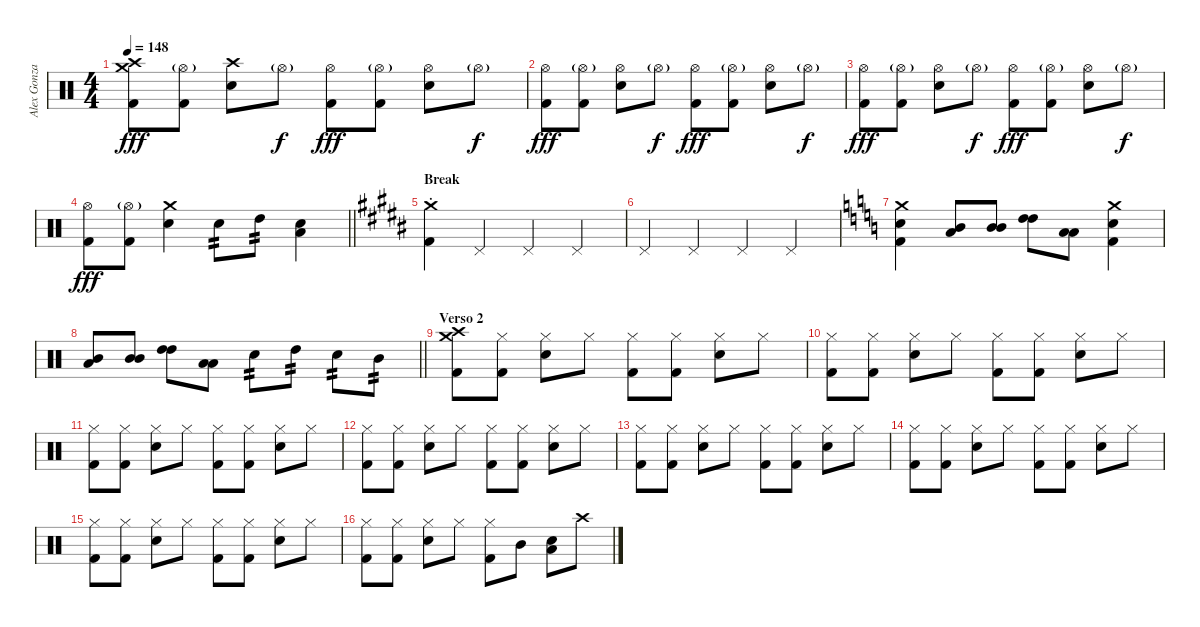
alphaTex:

\track ("Alex Gonzalez" "Alex Gonza") {instrument percussion}
\staff {score}
\articulation defaults
\ts (4 4)
\tempo 148
\clef neutral
\ks c
("Crash medium (hit)" "Crash high (hit)" "Kick (hit) 2").8{dy fff} ("Hi-Hat (open)"{g} "Kick (hit) 2").8 ("Crash high (hit)" "Snare (hit) 2").8 "Hi-Hat (open)"{g}.8{dy f} ("Hi-Hat (open)" "Kick (hit) 2").8{dy fff} ("Hi-Hat (open)"{g} "Kick (hit) 2").8 ("Hi-Hat (open)" "Snare (hit) 2").8 "Hi-Hat (open)"{g}.8{dy f} |
("Hi-Hat (open)" "Kick (hit) 2").8{dy fff} ("Hi-Hat (open)"{g} "Kick (hit) 2").8 ("Hi-Hat (open)" "Snare (hit) 2").8 "Hi-Hat (open)"{g}.8{dy f} ("Hi-Hat (open)" "Kick (hit) 2").8{dy fff} ("Hi-Hat (open)"{g} "Kick (hit) 2").8 ("Hi-Hat (open)" "Snare (hit) 2").8 "Hi-Hat (open)"{g}.8{dy f} |
("Hi-Hat (open)" "Kick (hit) 2").8{dy fff} ("Hi-Hat (open)"{g} "Kick (hit) 2").8 ("Hi-Hat (open)" "Snare (hit) 2").8 "Hi-Hat (open)"{g}.8{dy f} ("Hi-Hat (open)" "Kick (hit) 2").8{dy fff} ("Hi-Hat (open)"{g} "Kick (hit) 2").8 ("Hi-Hat (open)" "Snare (hit) 2").8 "Hi-Hat (open)"{g}.8{dy f} |
\barLineRight lightlight
("Hi-Hat (open)" "Kick (hit) 2").8{dy fff} ("Hi-Hat (open)"{g} "Kick (hit) 2").8 ("Crash medium (hit)" "Snare (hit) 2").4 "Snare (hit) 2".8{tp 2} "High Tom (hit)".8{tp 2} ("Low Tom (hit)" "Snare (hit) 2").4 |
\section ("" "Break")
\ks b
("Crash medium (hit)"{st} "Kick (hit) 2"{st}).4 "Pedal Hi-Hat (hit)".4 "Pedal Hi-Hat (hit)".4 "Pedal Hi-Hat (hit)".4 |
"Pedal Hi-Hat (hit)".4 "Pedal Hi-Hat (hit)".4 "Pedal Hi-Hat (hit)".4 "Pedal Hi-Hat (hit)".4 |
\ks c
("Crash medium (hit)" "Snare (hit) 2" "Kick (hit) 2").4 ("Mid Tom (hit)" "Low Tom (hit)").8 ("Mid Tom (hit)" "Mid Tom (hit)").8 ("High Tom (hit)" "High Tom (hit)").8 ("Low Tom (hit)" "Low Tom (hit)").8 ("Crash medium (hit)" "Snare (hit) 2" "Kick (hit) 2").4 |
\barLineRight lightlight
("Mid Tom (hit)" "Low Tom (hit)").8 ("Mid Tom (hit)" "Mid Tom (hit)").8 ("High Tom (hit)" "High Tom (hit)").8 ("Low Tom (hit)" "Low Tom (hit)").8 "Snare (hit) 2".8{tp 2} "High Tom (hit)".8{tp 2} "Snare (hit) 2".8{tp 2} "Mid Tom (hit)".8{tp 2} |
\section ("" "Verso 2")
("Crash medium (hit)" "Crash high (hit)" "Kick (hit) 2").8 ("Hi-Hat (closed)" "Kick (hit) 2").8 ("Hi-Hat (closed)" "Snare (hit) 2").8 "Hi-Hat (closed)".8 ("Hi-Hat (closed)" "Kick (hit) 2").8 ("Hi-Hat (closed)" "Kick (hit) 2").8 ("Hi-Hat (closed)" "Snare (hit) 2").8 "Hi-Hat (closed)".8 |
("Hi-Hat (closed)" "Kick (hit) 2").8 ("Hi-Hat (closed)" "Kick (hit) 2").8 ("Hi-Hat (closed)" "Snare (hit) 2").8 "Hi-Hat (closed)".8 ("Hi-Hat (closed)" "Kick (hit) 2").8 ("Hi-Hat (closed)" "Kick (hit) 2").8 ("Hi-Hat (closed)" "Snare (hit) 2").8 "Hi-Hat (closed)".8 |
("Hi-Hat (closed)" "Kick (hit) 2").8 ("Hi-Hat (closed)" "Kick (hit) 2").8 ("Hi-Hat (closed)" "Snare (hit) 2").8 "Hi-Hat (closed)".8 ("Hi-Hat (closed)" "Kick (hit) 2").8 ("Hi-Hat (closed)" "Kick (hit) 2").8 ("Hi-Hat (closed)" "Snare (hit) 2").8 "Hi-Hat (closed)".8 |
("Hi-Hat (closed)" "Kick (hit) 2").8 ("Hi-Hat (closed)" "Kick (hit) 2").8 ("Hi-Hat (closed)" "Snare (hit) 2").8 "Hi-Hat (closed)".8 ("Hi-Hat (closed)" "Kick (hit) 2").8 ("Hi-Hat (closed)" "Kick (hit) 2").8 ("Hi-Hat (closed)" "Snare (hit) 2").8 "Hi-Hat (closed)".8 |
("Hi-Hat (closed)" "Kick (hit) 2").8 ("Hi-Hat (closed)" "Kick (hit) 2").8 ("Hi-Hat (closed)" "Snare (hit) 2").8 "Hi-Hat (closed)".8 ("Hi-Hat (closed)" "Kick (hit) 2").8 ("Hi-Hat (closed)" "Kick (hit) 2").8 ("Hi-Hat (closed)" "Snare (hit) 2").8 "Hi-Hat (closed)".8 |
("Hi-Hat (closed)" "Kick (hit) 2").8 ("Hi-Hat (closed)" "Kick (hit) 2").8 ("Hi-Hat (closed)" "Snare (hit) 2").8 "Hi-Hat (closed)".8 ("Hi-Hat (closed)" "Kick (hit) 2").8 ("Hi-Hat (closed)" "Kick (hit) 2").8 ("Hi-Hat (closed)" "Snare (hit) 2").8 "Hi-Hat (closed)".8 |
("Hi-Hat (closed)" "Kick (hit) 2").8 ("Hi-Hat (closed)" "Kick (hit) 2").8 ("Hi-Hat (closed)" "Snare (hit) 2").8 "Hi-Hat (closed)".8 ("Hi-Hat (closed)" "Kick (hit) 2").8 ("Hi-Hat (closed)" "Kick (hit) 2").8 ("Hi-Hat (closed)" "Snare (hit) 2").8 "Hi-Hat (closed)".8 |
("Hi-Hat (closed)" "Kick (hit) 2").8 ("Hi-Hat (closed)" "Kick (hit) 2").8 ("Hi-Hat (closed)" "Snare (hit) 2").8 "Hi-Hat (closed)".8 ("Hi-Hat (closed)" "Kick (hit) 2").8 "Mid Tom (hit)".8 ("Low Tom (hit)" "Snare (hit) 2").8 "Crash high (hit)".8
